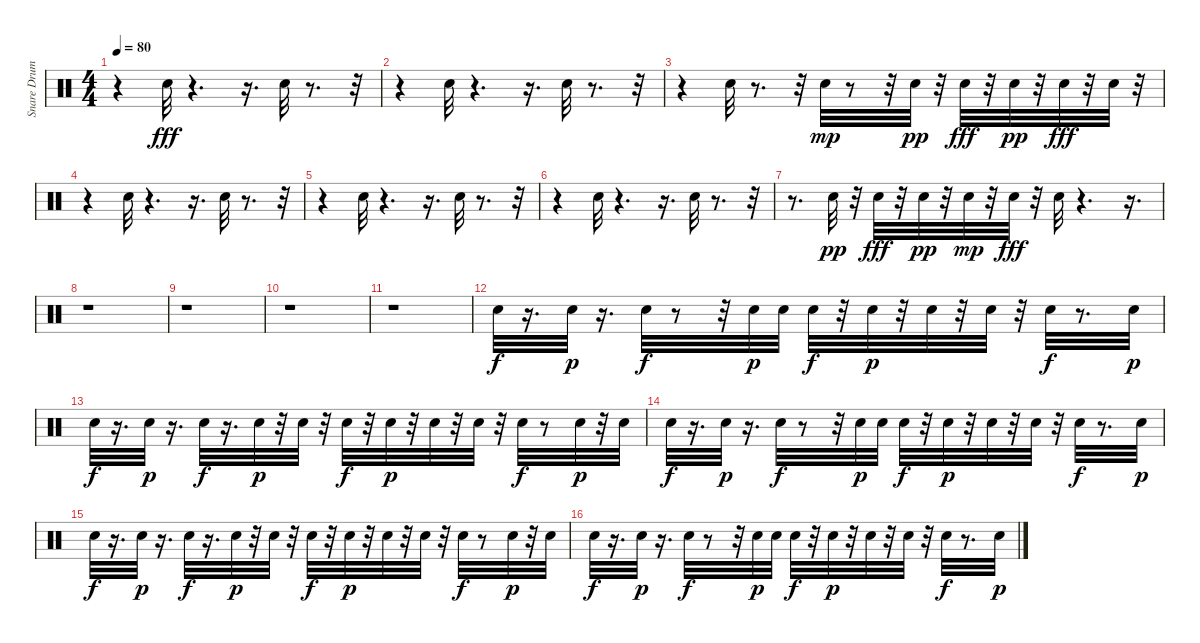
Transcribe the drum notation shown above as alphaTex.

\track ("Snare Drum" "Snare Drum") {instrument percussion}
\staff {score}
\articulation defaults
\ts (4 4)
\tempo 80
\clef neutral
\ks c
r.4{dy fff} "Snare (hit) 2".32 r.4{d} r.16{d} "Snare (hit) 2".32 r.8{d} r.32 |
r.4 "Snare (hit) 2".32 r.4{d} r.16{d} "Snare (hit) 2".32 r.8{d} r.32 |
r.4 "Snare (hit) 2".32 r.8{d} r.32 "Snare (hit) 2".32{dy mp} r.8 r.32 "Snare (hit) 2".32{dy pp} r.32 "Snare (hit) 2".32{dy fff} r.32 "Snare (hit) 2".32{dy pp} r.32 "Snare (hit) 2".32{dy fff} r.32 "Snare (hit) 2".32 r.32 |
r.4 "Snare (hit) 2".32 r.4{d} r.16{d} "Snare (hit) 2".32 r.8{d} r.32 |
r.4 "Snare (hit) 2".32 r.4{d} r.16{d} "Snare (hit) 2".32 r.8{d} r.32 |
r.4 "Snare (hit) 2".32 r.4{d} r.16{d} "Snare (hit) 2".32 r.8{d} r.32 |
r.8{d} "Snare (hit) 2".32{dy pp} r.32 "Snare (hit) 2".32{dy fff} r.32 "Snare (hit) 2".32{dy pp} r.32 "Snare (hit) 2".32{dy mp} r.32 "Snare (hit) 2".32{dy fff} r.32 "Snare (hit) 2".32 r.4{d} r.16{d} |
r.1 |
r.1 |
r.1 |
r.1 |
"Snare (hit) 2".32{dy f} r.16{d} "Snare (hit) 2".32{dy p} r.16{d} "Snare (hit) 2".32{dy f} r.8 r.32 "Snare (hit) 2".32{dy p} "Snare (hit) 2".32 "Snare (hit) 2".32{dy f} r.32 "Snare (hit) 2".32{dy p} r.32 "Snare (hit) 2".32 r.32 "Snare (hit) 2".32 r.32 "Snare (hit) 2".32{dy f} r.8{d} "Snare (hit) 2".32{dy p} |
"Snare (hit) 2".32{dy f} r.16{d} "Snare (hit) 2".32{dy p} r.16{d} "Snare (hit) 2".32{dy f} r.16{d} "Snare (hit) 2".32{dy p} r.32 "Snare (hit) 2".32 r.32 "Snare (hit) 2".32{dy f} r.32 "Snare (hit) 2".32{dy p} r.32 "Snare (hit) 2".32 r.32 "Snare (hit) 2".32 r.32 "Snare (hit) 2".32{dy f} r.8 "Snare (hit) 2".32{dy p} r.32 "Snare (hit) 2".32 |
"Snare (hit) 2".32{dy f} r.16{d} "Snare (hit) 2".32{dy p} r.16{d} "Snare (hit) 2".32{dy f} r.8 r.32 "Snare (hit) 2".32{dy p} "Snare (hit) 2".32 "Snare (hit) 2".32{dy f} r.32 "Snare (hit) 2".32{dy p} r.32 "Snare (hit) 2".32 r.32 "Snare (hit) 2".32 r.32 "Snare (hit) 2".32{dy f} r.8{d} "Snare (hit) 2".32{dy p} |
"Snare (hit) 2".32{dy f} r.16{d} "Snare (hit) 2".32{dy p} r.16{d} "Snare (hit) 2".32{dy f} r.16{d} "Snare (hit) 2".32{dy p} r.32 "Snare (hit) 2".32 r.32 "Snare (hit) 2".32{dy f} r.32 "Snare (hit) 2".32{dy p} r.32 "Snare (hit) 2".32 r.32 "Snare (hit) 2".32 r.32 "Snare (hit) 2".32{dy f} r.8 "Snare (hit) 2".32{dy p} r.32 "Snare (hit) 2".32 |
"Snare (hit) 2".32{dy f} r.16{d} "Snare (hit) 2".32{dy p} r.16{d} "Snare (hit) 2".32{dy f} r.8 r.32 "Snare (hit) 2".32{dy p} "Snare (hit) 2".32 "Snare (hit) 2".32{dy f} r.32 "Snare (hit) 2".32{dy p} r.32 "Snare (hit) 2".32 r.32 "Snare (hit) 2".32 r.32 "Snare (hit) 2".32{dy f} r.8{d} "Snare (hit) 2".32{dy p}
